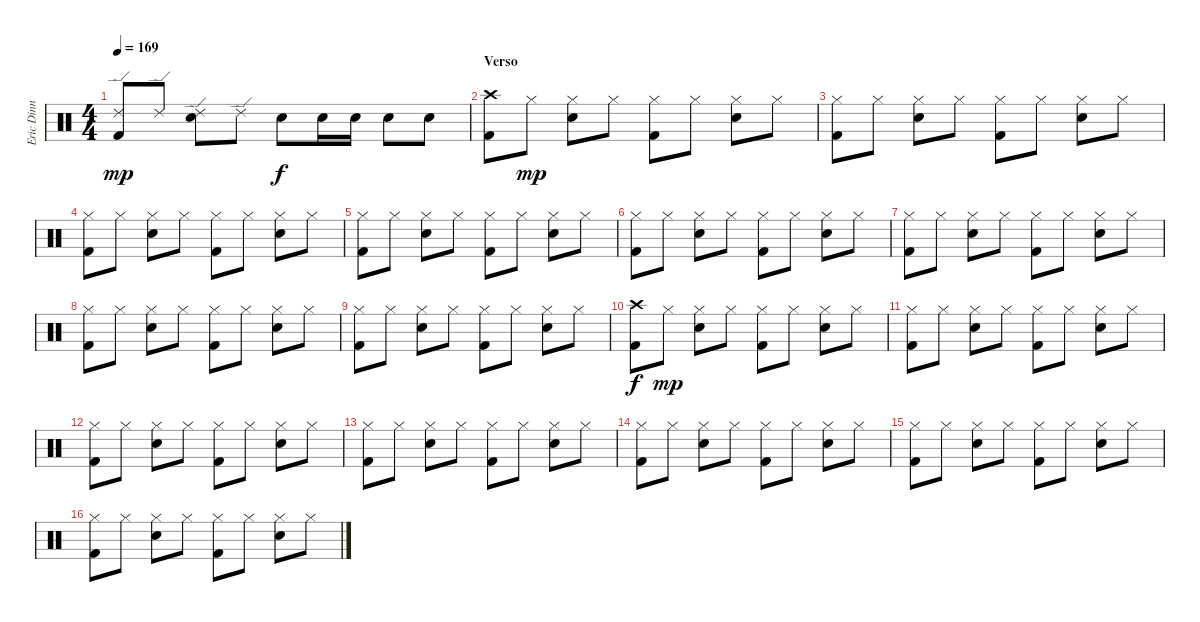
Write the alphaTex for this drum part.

\track ("Eric Dinn" "Eric Dinn") {instrument percussion}
\staff {score}
\articulation defaults
\ts (4 4)
\tempo 169
\clef neutral
\ks c
("Ride (edge) 2" "Kick (hit) 2").8{dy mp} "Ride (edge) 2".8 ("Ride (edge) 2" "Snare (hit) 2").8 "Ride (edge) 2".8 "Snare (hit) 2".8{dy f} "Snare (hit) 2".16 "Snare (hit) 2".16 "Snare (hit) 2".8 "Snare (hit) 2".8 |
\section ("" "Verso")
("Crash high (hit)" "Kick (hit) 2").8 "Hi-Hat (closed)".8{dy mp} ("Hi-Hat (closed)" "Snare (hit) 2").8 "Hi-Hat (closed)".8 ("Hi-Hat (closed)" "Kick (hit) 2").8 "Hi-Hat (closed)".8 ("Hi-Hat (closed)" "Snare (hit) 2").8 "Hi-Hat (closed)".8 |
("Hi-Hat (closed)" "Kick (hit) 2").8 "Hi-Hat (closed)".8 ("Hi-Hat (closed)" "Snare (hit) 2").8 "Hi-Hat (closed)".8 ("Hi-Hat (closed)" "Kick (hit) 2").8 "Hi-Hat (closed)".8 ("Hi-Hat (closed)" "Snare (hit) 2").8 "Hi-Hat (closed)".8 |
("Hi-Hat (closed)" "Kick (hit) 2").8 "Hi-Hat (closed)".8 ("Hi-Hat (closed)" "Snare (hit) 2").8 "Hi-Hat (closed)".8 ("Hi-Hat (closed)" "Kick (hit) 2").8 "Hi-Hat (closed)".8 ("Hi-Hat (closed)" "Snare (hit) 2").8 "Hi-Hat (closed)".8 |
("Hi-Hat (closed)" "Kick (hit) 2").8 "Hi-Hat (closed)".8 ("Hi-Hat (closed)" "Snare (hit) 2").8 "Hi-Hat (closed)".8 ("Hi-Hat (closed)" "Kick (hit) 2").8 "Hi-Hat (closed)".8 ("Hi-Hat (closed)" "Snare (hit) 2").8 "Hi-Hat (closed)".8 |
("Hi-Hat (closed)" "Kick (hit) 2").8 "Hi-Hat (closed)".8 ("Hi-Hat (closed)" "Snare (hit) 2").8 "Hi-Hat (closed)".8 ("Hi-Hat (closed)" "Kick (hit) 2").8 "Hi-Hat (closed)".8 ("Hi-Hat (closed)" "Snare (hit) 2").8 "Hi-Hat (closed)".8 |
("Hi-Hat (closed)" "Kick (hit) 2").8 "Hi-Hat (closed)".8 ("Hi-Hat (closed)" "Snare (hit) 2").8 "Hi-Hat (closed)".8 ("Hi-Hat (closed)" "Kick (hit) 2").8 "Hi-Hat (closed)".8 ("Hi-Hat (closed)" "Snare (hit) 2").8 "Hi-Hat (closed)".8 |
("Hi-Hat (closed)" "Kick (hit) 2").8 "Hi-Hat (closed)".8 ("Hi-Hat (closed)" "Snare (hit) 2").8 "Hi-Hat (closed)".8 ("Hi-Hat (closed)" "Kick (hit) 2").8 "Hi-Hat (closed)".8 ("Hi-Hat (closed)" "Snare (hit) 2").8 "Hi-Hat (closed)".8 |
("Hi-Hat (closed)" "Kick (hit) 2").8 "Hi-Hat (closed)".8 ("Hi-Hat (closed)" "Snare (hit) 2").8 "Hi-Hat (closed)".8 ("Hi-Hat (closed)" "Kick (hit) 2").8 "Hi-Hat (closed)".8 ("Hi-Hat (closed)" "Snare (hit) 2").8 "Hi-Hat (closed)".8 |
("Crash high (hit)" "Kick (hit) 2").8{dy f} "Hi-Hat (closed)".8{dy mp} ("Hi-Hat (closed)" "Snare (hit) 2").8 "Hi-Hat (closed)".8 ("Hi-Hat (closed)" "Kick (hit) 2").8 "Hi-Hat (closed)".8 ("Hi-Hat (closed)" "Snare (hit) 2").8 "Hi-Hat (closed)".8 |
("Hi-Hat (closed)" "Kick (hit) 2").8 "Hi-Hat (closed)".8 ("Hi-Hat (closed)" "Snare (hit) 2").8 "Hi-Hat (closed)".8 ("Hi-Hat (closed)" "Kick (hit) 2").8 "Hi-Hat (closed)".8 ("Hi-Hat (closed)" "Snare (hit) 2").8 "Hi-Hat (closed)".8 |
("Hi-Hat (closed)" "Kick (hit) 2").8 "Hi-Hat (closed)".8 ("Hi-Hat (closed)" "Snare (hit) 2").8 "Hi-Hat (closed)".8 ("Hi-Hat (closed)" "Kick (hit) 2").8 "Hi-Hat (closed)".8 ("Hi-Hat (closed)" "Snare (hit) 2").8 "Hi-Hat (closed)".8 |
("Hi-Hat (closed)" "Kick (hit) 2").8 "Hi-Hat (closed)".8 ("Hi-Hat (closed)" "Snare (hit) 2").8 "Hi-Hat (closed)".8 ("Hi-Hat (closed)" "Kick (hit) 2").8 "Hi-Hat (closed)".8 ("Hi-Hat (closed)" "Snare (hit) 2").8 "Hi-Hat (closed)".8 |
("Hi-Hat (closed)" "Kick (hit) 2").8 "Hi-Hat (closed)".8 ("Hi-Hat (closed)" "Snare (hit) 2").8 "Hi-Hat (closed)".8 ("Hi-Hat (closed)" "Kick (hit) 2").8 "Hi-Hat (closed)".8 ("Hi-Hat (closed)" "Snare (hit) 2").8 "Hi-Hat (closed)".8 |
("Hi-Hat (closed)" "Kick (hit) 2").8 "Hi-Hat (closed)".8 ("Hi-Hat (closed)" "Snare (hit) 2").8 "Hi-Hat (closed)".8 ("Hi-Hat (closed)" "Kick (hit) 2").8 "Hi-Hat (closed)".8 ("Hi-Hat (closed)" "Snare (hit) 2").8 "Hi-Hat (closed)".8 |
("Hi-Hat (closed)" "Kick (hit) 2").8 "Hi-Hat (closed)".8 ("Hi-Hat (closed)" "Snare (hit) 2").8 "Hi-Hat (closed)".8 ("Hi-Hat (closed)" "Kick (hit) 2").8 "Hi-Hat (closed)".8 ("Hi-Hat (closed)" "Snare (hit) 2").8 "Hi-Hat (closed)".8
